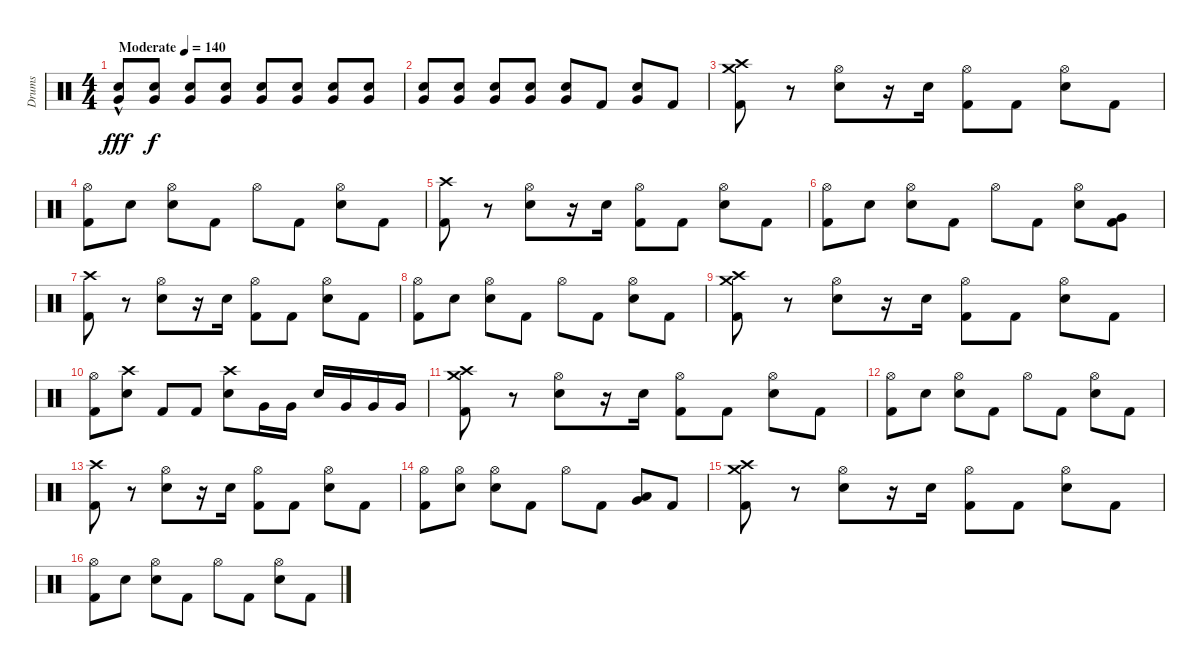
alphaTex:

\track ("Drums" "Drums") {instrument percussion}
\staff {score}
\articulation defaults
\ts (4 4)
\tempo (140 "Moderate")
\clef neutral
\ks c
("Very Low Tom (hit)"{hac} "Electric Snare (hit)"{hac}).8{dy fff} ("Very Low Tom (hit)" "Electric Snare (hit)").8{dy f volume 6} ("Very Low Tom (hit)" "Electric Snare (hit)").8{volume 13} ("Very Low Tom (hit)" "Electric Snare (hit)").8 ("Very Low Tom (hit)" "Electric Snare (hit)").8 ("Very Low Tom (hit)" "Electric Snare (hit)").8 ("Very Low Tom (hit)" "Electric Snare (hit)").8 ("Very Low Tom (hit)" "Electric Snare (hit)").8 |
("Very Low Tom (hit)" "Electric Snare (hit)").8 ("Very Low Tom (hit)" "Electric Snare (hit)").8 ("Very Low Tom (hit)" "Electric Snare (hit)").8 ("Very Low Tom (hit)" "Electric Snare (hit)").8 ("Very Low Tom (hit)" "Electric Snare (hit)").8 "Kick (hit) 2".8 ("Very Low Tom (hit)" "Electric Snare (hit)").8 "Kick (hit) 2".8 |
("Crash high (hit)" "Crash medium (hit)" "Kick (hit) 2").8 r.8 ("Hi-Hat (open)" "Electric Snare (hit)").8 r.16 "Electric Snare (hit)".16 ("Hi-Hat (open)" "Kick (hit) 2").8 "Kick (hit) 2".8 ("Hi-Hat (open)" "Electric Snare (hit)").8 "Kick (hit) 2".8 |
("Hi-Hat (open)" "Kick (hit) 2").8 "Electric Snare (hit)".8 ("Hi-Hat (open)" "Electric Snare (hit)").8 "Kick (hit) 2".8 "Hi-Hat (open)".8 "Kick (hit) 2".8 ("Hi-Hat (open)" "Electric Snare (hit)").8 "Kick (hit) 2".8 |
("Crash high (hit)" "Kick (hit) 2").8 r.8 ("Hi-Hat (open)" "Electric Snare (hit)").8 r.16 "Electric Snare (hit)".16 ("Hi-Hat (open)" "Kick (hit) 2").8 "Kick (hit) 2".8 ("Hi-Hat (open)" "Electric Snare (hit)").8 "Kick (hit) 2".8 |
("Hi-Hat (open)" "Kick (hit) 2").8 "Electric Snare (hit)".8 ("Hi-Hat (open)" "Electric Snare (hit)").8 "Kick (hit) 2".8 "Hi-Hat (open)".8 "Kick (hit) 2".8 ("Hi-Hat (open)" "Electric Snare (hit)").8 ("Very Low Tom (hit)" "Kick (hit) 2").8 |
("Crash high (hit)" "Kick (hit) 2").8 r.8 ("Hi-Hat (open)" "Electric Snare (hit)").8 r.16 "Electric Snare (hit)".16 ("Hi-Hat (open)" "Kick (hit) 2").8 "Kick (hit) 2".8 ("Hi-Hat (open)" "Electric Snare (hit)").8 "Kick (hit) 2".8 |
("Hi-Hat (open)" "Kick (hit) 2").8 "Electric Snare (hit)".8 ("Hi-Hat (open)" "Electric Snare (hit)").8 "Kick (hit) 2".8 "Hi-Hat (open)".8 "Kick (hit) 2".8 ("Hi-Hat (open)" "Electric Snare (hit)").8 "Kick (hit) 2".8 |
("Crash high (hit)" "Crash medium (hit)" "Kick (hit) 2").8 r.8 ("Hi-Hat (open)" "Electric Snare (hit)").8 r.16 "Electric Snare (hit)".16 ("Hi-Hat (open)" "Kick (hit) 2").8 "Kick (hit) 2".8 ("Hi-Hat (open)" "Electric Snare (hit)").8 "Kick (hit) 2".8 |
("Hi-Hat (open)" "Kick (hit) 2").8 ("Crash high (hit)" "Electric Snare (hit)").8 "Kick (hit) 2".8 "Kick (hit) 2".8 ("Crash high (hit)" "Electric Snare (hit)").8 "Very Low Tom (hit)".16 "Very Low Tom (hit)".16 "Electric Snare (hit)".16 "Very Low Tom (hit)".16 "Very Low Tom (hit)".16 "Very Low Tom (hit)".16 |
("Crash high (hit)" "Crash medium (hit)" "Kick (hit) 2").8 r.8 ("Hi-Hat (open)" "Electric Snare (hit)").8 r.16 "Electric Snare (hit)".16 ("Hi-Hat (open)" "Kick (hit) 2").8 "Kick (hit) 2".8 ("Hi-Hat (open)" "Electric Snare (hit)").8 "Kick (hit) 2".8 |
("Hi-Hat (open)" "Kick (hit) 2").8 "Electric Snare (hit)".8 ("Hi-Hat (open)" "Electric Snare (hit)").8 "Kick (hit) 2".8 "Hi-Hat (open)".8 "Kick (hit) 2".8 ("Hi-Hat (open)" "Electric Snare (hit)").8 "Kick (hit) 2".8 |
("Crash high (hit)" "Kick (hit) 2").8 r.8 ("Hi-Hat (open)" "Electric Snare (hit)").8 r.16 "Electric Snare (hit)".16 ("Hi-Hat (open)" "Kick (hit) 2").8 "Kick (hit) 2".8 ("Hi-Hat (open)" "Electric Snare (hit)").8 "Kick (hit) 2".8 |
("Hi-Hat (open)" "Kick (hit) 2").8 ("Hi-Hat (open)" "Electric Snare (hit)").8 ("Hi-Hat (open)" "Electric Snare (hit)").8 "Kick (hit) 2".8 "Hi-Hat (open)".8 "Kick (hit) 2".8 ("Low Tom (hit)" "Very Low Tom (hit)").8 "Kick (hit) 2".8 |
("Crash high (hit)" "Crash medium (hit)" "Kick (hit) 2").8 r.8 ("Hi-Hat (open)" "Electric Snare (hit)").8 r.16 "Electric Snare (hit)".16 ("Hi-Hat (open)" "Kick (hit) 2").8 "Kick (hit) 2".8 ("Hi-Hat (open)" "Electric Snare (hit)").8 "Kick (hit) 2".8 |
("Hi-Hat (open)" "Kick (hit) 2").8 "Electric Snare (hit)".8 ("Hi-Hat (open)" "Electric Snare (hit)").8 "Kick (hit) 2".8 "Hi-Hat (open)".8 "Kick (hit) 2".8 ("Hi-Hat (open)" "Electric Snare (hit)").8 "Kick (hit) 2".8
